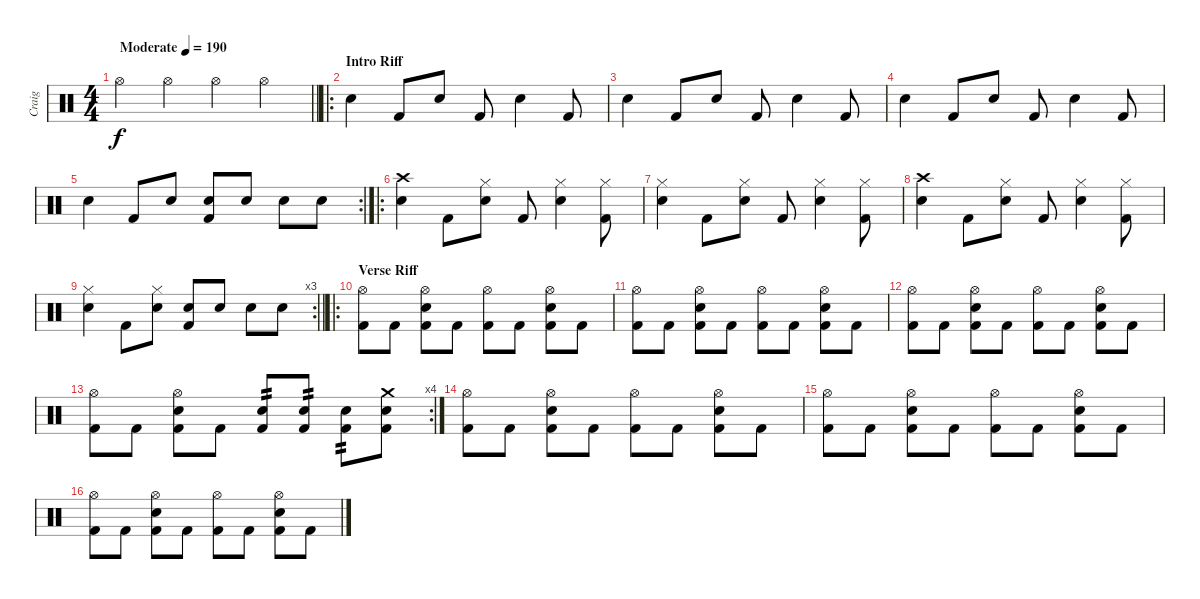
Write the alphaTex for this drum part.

\track ("Craig" "Craig") {instrument percussion}
\staff {score}
\articulation defaults
\ts (4 4)
\tempo (190 "Moderate")
\clef neutral
\barLineRight lightlight
\ks c "Hi-Hat (open)".4{dy f} "Hi-Hat (open)".4 "Hi-Hat (open)".4 "Hi-Hat (open)".4
|
\ro
\section ("" "Intro Riff")
"Snare (hit) 2".4 "Kick (hit) 2".8 "Snare (hit) 2".8 "Kick (hit) 2".8 "Snare (hit) 2".4 "Kick (hit) 2".8 |
"Snare (hit) 2".4 "Kick (hit) 2".8 "Snare (hit) 2".8 "Kick (hit) 2".8 "Snare (hit) 2".4 "Kick (hit) 2".8 |
"Snare (hit) 2".4 "Kick (hit) 2".8 "Snare (hit) 2".8 "Kick (hit) 2".8 "Snare (hit) 2".4 "Kick (hit) 2".8 |
\rc 2 "Snare (hit) 2".4 "Kick (hit) 2".8 "Snare (hit) 2".8
("Snare (hit) 2" "Kick (hit) 2").8 "Snare (hit) 2".8 "Snare (hit) 2".8 "Snare (hit) 2".8 |
\ro
("Crash high (hit)" "Snare (hit) 2").4 "Kick (hit) 2".8 ("Hi-Hat (closed)" "Snare (hit) 2").8 "Kick (hit) 2".8 ("Hi-Hat (closed)" "Snare (hit) 2").4 ("Hi-Hat (closed)" "Kick (hit) 2").8 |
("Hi-Hat (closed)" "Snare (hit) 2").4 "Kick (hit) 2".8 ("Hi-Hat (closed)" "Snare (hit) 2").8 "Kick (hit) 2".8 ("Hi-Hat (closed)" "Snare (hit) 2").4 ("Hi-Hat (closed)" "Kick (hit) 2").8 |
("Crash high (hit)" "Snare (hit) 2").4 "Kick (hit) 2".8 ("Hi-Hat (closed)" "Snare (hit) 2").8 "Kick (hit) 2".8 ("Hi-Hat (closed)" "Snare (hit) 2").4 ("Hi-Hat (closed)" "Kick (hit) 2").8 |
\rc 3
\barLineRight lightlight
("Hi-Hat (closed)" "Snare (hit) 2").4 "Kick (hit) 2".8 ("Hi-Hat (closed)" "Snare (hit) 2").8 ("Snare (hit) 2" "Kick (hit) 2").8 "Snare (hit) 2".8 "Snare (hit) 2".8 "Snare (hit) 2".8 |
\ro
\section ("" "Verse Riff")
("Hi-Hat (open)" "Kick (hit) 2").8 "Kick (hit) 2".8 ("Hi-Hat (open)" "Snare (hit) 2" "Kick (hit) 2").8 "Kick (hit) 2".8 ("Hi-Hat (open)" "Kick (hit) 2").8 "Kick (hit) 2".8 ("Hi-Hat (open)" "Snare (hit) 2" "Kick (hit) 2").8 "Kick (hit) 2".8 |
("Hi-Hat (open)" "Kick (hit) 2").8 "Kick (hit) 2".8 ("Hi-Hat (open)" "Snare (hit) 2" "Kick (hit) 2").8 "Kick (hit) 2".8 ("Hi-Hat (open)" "Kick (hit) 2").8 "Kick (hit) 2".8 ("Hi-Hat (open)" "Snare (hit) 2" "Kick (hit) 2").8 "Kick (hit) 2".8 |
("Hi-Hat (open)" "Kick (hit) 2").8 "Kick (hit) 2".8 ("Hi-Hat (open)" "Snare (hit) 2" "Kick (hit) 2").8 "Kick (hit) 2".8 ("Hi-Hat (open)" "Kick (hit) 2").8 "Kick (hit) 2".8 ("Hi-Hat (open)" "Snare (hit) 2" "Kick (hit) 2").8 "Kick (hit) 2".8 |
\rc 4
("Hi-Hat (open)" "Kick (hit) 2").8 "Kick (hit) 2".8 ("Hi-Hat (open)" "Snare (hit) 2" "Kick (hit) 2").8 "Kick (hit) 2".8 ("Snare (hit) 2" "Kick (hit) 2").8{tp 2} ("Snare (hit) 2" "Kick (hit) 2").8{tp 2} ("Snare (hit) 2" "Kick (hit) 2").8{tp 2} ("Crash medium (hit)" "Snare (hit) 2" "Kick (hit) 2").8 |
("Hi-Hat (open)" "Kick (hit) 2").8 "Kick (hit) 2".8 ("Hi-Hat (open)" "Snare (hit) 2" "Kick (hit) 2").8 "Kick (hit) 2".8 ("Hi-Hat (open)" "Kick (hit) 2").8 "Kick (hit) 2".8 ("Hi-Hat (open)" "Snare (hit) 2" "Kick (hit) 2").8 "Kick (hit) 2".8 |
("Hi-Hat (open)" "Kick (hit) 2").8 "Kick (hit) 2".8 ("Hi-Hat (open)" "Snare (hit) 2" "Kick (hit) 2").8 "Kick (hit) 2".8 ("Hi-Hat (open)" "Kick (hit) 2").8 "Kick (hit) 2".8 ("Hi-Hat (open)" "Snare (hit) 2" "Kick (hit) 2").8 "Kick (hit) 2".8 |
("Hi-Hat (open)" "Kick (hit) 2").8 "Kick (hit) 2".8 ("Hi-Hat (open)" "Snare (hit) 2" "Kick (hit) 2").8 "Kick (hit) 2".8 ("Hi-Hat (open)" "Kick (hit) 2").8 "Kick (hit) 2".8 ("Hi-Hat (open)" "Snare (hit) 2" "Kick (hit) 2").8 "Kick (hit) 2".8
